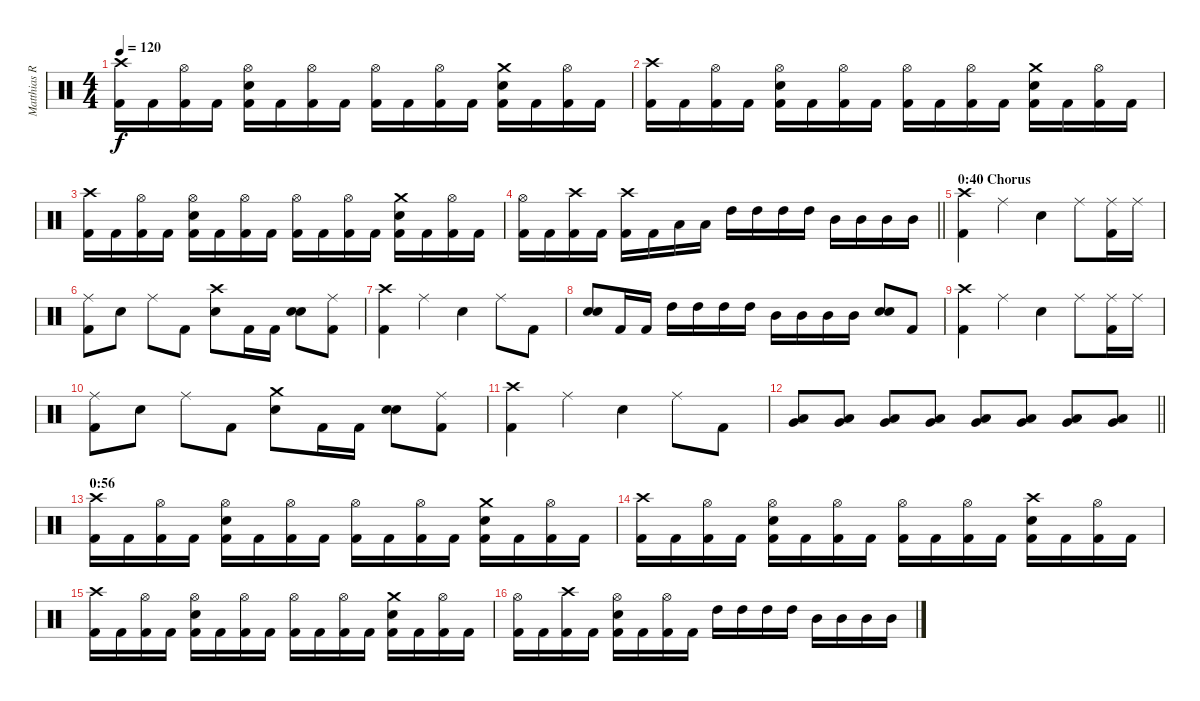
\track ("Matthias R." "Matthias R") {instrument percussion}
\staff {score}
\articulation defaults
\ts (4 4)
\tempo 120
\clef neutral
\ks c
("Kick (hit) 2" "Crash high (hit)").16{dy f} "Kick (hit) 2".16 ("Kick (hit) 2" "Hi-Hat (open)").16 "Kick (hit) 2".16 ("Kick (hit) 2" "Snare (hit) 2" "Hi-Hat (open)").16 "Kick (hit) 2".16 ("Kick (hit) 2" "Hi-Hat (open)").16 "Kick (hit) 2".16 ("Kick (hit) 2" "Hi-Hat (open)").16 "Kick (hit) 2".16 ("Kick (hit) 2" "Hi-Hat (open)").16 "Kick (hit) 2".16 ("Kick (hit) 2" "Snare (hit) 2" "Crash medium (hit)").16 "Kick (hit) 2".16 ("Kick (hit) 2" "Hi-Hat (open)").16 "Kick (hit) 2".16 |
("Kick (hit) 2" "Crash high (hit)").16 "Kick (hit) 2".16 ("Kick (hit) 2" "Hi-Hat (open)").16 "Kick (hit) 2".16 ("Kick (hit) 2" "Snare (hit) 2" "Hi-Hat (open)").16 "Kick (hit) 2".16 ("Kick (hit) 2" "Hi-Hat (open)").16 "Kick (hit) 2".16 ("Kick (hit) 2" "Hi-Hat (open)").16 "Kick (hit) 2".16 ("Kick (hit) 2" "Hi-Hat (open)").16 "Kick (hit) 2".16 ("Kick (hit) 2" "Snare (hit) 2" "Crash medium (hit)").16 "Kick (hit) 2".16 ("Kick (hit) 2" "Hi-Hat (open)").16 "Kick (hit) 2".16 |
("Kick (hit) 2" "Crash high (hit)").16 "Kick (hit) 2".16 ("Kick (hit) 2" "Hi-Hat (open)").16 "Kick (hit) 2".16 ("Kick (hit) 2" "Snare (hit) 2" "Hi-Hat (open)").16 "Kick (hit) 2".16 ("Kick (hit) 2" "Hi-Hat (open)").16 "Kick (hit) 2".16 ("Kick (hit) 2" "Hi-Hat (open)").16 "Kick (hit) 2".16 ("Kick (hit) 2" "Hi-Hat (open)").16 "Kick (hit) 2".16 ("Kick (hit) 2" "Snare (hit) 2" "Crash medium (hit)").16 "Kick (hit) 2".16 ("Kick (hit) 2" "Hi-Hat (open)").16 "Kick (hit) 2".16 |
\barLineRight lightlight
("Kick (hit) 2" "Hi-Hat (open)").16 "Kick (hit) 2".16 ("Kick (hit) 2" "Crash high (hit)").16 "Kick (hit) 2".16 ("Kick (hit) 2" "Crash high (hit)").16 "Kick (hit) 2".16 "Low Tom (hit)".16 "Low Tom (hit)".16 "High Tom (hit)".16 "High Tom (hit)".16 "High Tom (hit)".16 "High Tom (hit)".16 "Mid Tom (hit)".16 "Mid Tom (hit)".16 "Mid Tom (hit)".16 "Mid Tom (hit)".16 |
\section ("" "0:40 Chorus")
("Kick (hit) 2" "Crash high (hit)").4 "Ride (middle)".4 "Snare (hit) 2".4 "Ride (middle)".8 ("Kick (hit) 2" "Ride (middle)").16 "Ride (middle)".16 |
("Kick (hit) 2" "Ride (middle)").8 "Snare (hit) 2".8 "Ride (middle)".8 "Kick (hit) 2".8 ("Snare (hit) 2" "Crash high (hit)").8 "Kick (hit) 2".16 "Kick (hit) 2".16 ("Snare (hit) 2" "Electric Snare (hit)").8{bu 60} ("Kick (hit) 2" "Ride (middle)").8 |
("Kick (hit) 2" "Crash high (hit)").4 "Ride (middle)".4 "Snare (hit) 2".4 "Ride (middle)".8 "Kick (hit) 2".8 |
("Snare (hit) 2" "Electric Snare (hit)").8{bu 240} "Kick (hit) 2".16 "Kick (hit) 2".16 "High Tom (hit)".16 "High Tom (hit)".16 "High Tom (hit)".16 "High Tom (hit)".16 "Mid Tom (hit)".16 "Mid Tom (hit)".16 "Mid Tom (hit)".16 "Mid Tom (hit)".16 ("Snare (hit) 2" "Electric Snare (hit)").8{bu 240} "Kick (hit) 2".8 |
("Kick (hit) 2" "Crash high (hit)").4 "Ride (middle)".4 "Snare (hit) 2".4 "Ride (middle)".8 ("Kick (hit) 2" "Ride (middle)").16 "Ride (middle)".16 |
("Kick (hit) 2" "Ride (middle)").8 "Snare (hit) 2".8 "Ride (middle)".8 "Kick (hit) 2".8 ("Snare (hit) 2" "Crash medium (hit)").8 "Kick (hit) 2".16 "Kick (hit) 2".16 ("Snare (hit) 2" "Electric Snare (hit)").8{bu 60} ("Kick (hit) 2" "Ride (middle)").8 |
("Kick (hit) 2" "Crash high (hit)").4 "Ride (middle)".4 "Snare (hit) 2".4 "Ride (middle)".8 "Kick (hit) 2".8 |
\barLineRight lightlight
("Low Tom (hit)" "Very Low Tom (hit)").8 ("Low Tom (hit)" "Very Low Tom (hit)").8 ("Low Tom (hit)" "Very Low Tom (hit)").8 ("Low Tom (hit)" "Very Low Tom (hit)").8 ("Low Tom (hit)" "Very Low Tom (hit)").8 ("Low Tom (hit)" "Very Low Tom (hit)").8 ("Low Tom (hit)" "Very Low Tom (hit)").8 ("Low Tom (hit)" "Very Low Tom (hit)").8 |
\section ("" "0:56")
("Kick (hit) 2" "Crash high (hit)").16 "Kick (hit) 2".16 ("Kick (hit) 2" "Hi-Hat (open)").16 "Kick (hit) 2".16 ("Kick (hit) 2" "Snare (hit) 2" "Hi-Hat (open)").16 "Kick (hit) 2".16 ("Kick (hit) 2" "Hi-Hat (open)").16 "Kick (hit) 2".16 ("Kick (hit) 2" "Hi-Hat (open)").16 "Kick (hit) 2".16 ("Kick (hit) 2" "Hi-Hat (open)").16 "Kick (hit) 2".16 ("Kick (hit) 2" "Snare (hit) 2" "Crash medium (hit)").16 "Kick (hit) 2".16 ("Kick (hit) 2" "Hi-Hat (open)").16 "Kick (hit) 2".16 |
("Kick (hit) 2" "Crash high (hit)").16 "Kick (hit) 2".16 ("Kick (hit) 2" "Hi-Hat (open)").16 "Kick (hit) 2".16 ("Kick (hit) 2" "Snare (hit) 2" "Hi-Hat (open)").16 "Kick (hit) 2".16 ("Kick (hit) 2" "Hi-Hat (open)").16 "Kick (hit) 2".16 ("Kick (hit) 2" "Hi-Hat (open)").16 "Kick (hit) 2".16 ("Kick (hit) 2" "Hi-Hat (open)").16 "Kick (hit) 2".16 ("Kick (hit) 2" "Snare (hit) 2" "Crash high (hit)").16 "Kick (hit) 2".16 ("Kick (hit) 2" "Hi-Hat (open)").16 "Kick (hit) 2".16 |
("Kick (hit) 2" "Crash high (hit)").16 "Kick (hit) 2".16 ("Kick (hit) 2" "Hi-Hat (open)").16 "Kick (hit) 2".16 ("Kick (hit) 2" "Snare (hit) 2" "Hi-Hat (open)").16 "Kick (hit) 2".16 ("Kick (hit) 2" "Hi-Hat (open)").16 "Kick (hit) 2".16 ("Kick (hit) 2" "Hi-Hat (open)").16 "Kick (hit) 2".16 ("Kick (hit) 2" "Hi-Hat (open)").16 "Kick (hit) 2".16 ("Kick (hit) 2" "Snare (hit) 2" "Crash medium (hit)").16 "Kick (hit) 2".16 ("Kick (hit) 2" "Hi-Hat (open)").16 "Kick (hit) 2".16 |
("Kick (hit) 2" "Hi-Hat (open)").16 "Kick (hit) 2".16 ("Kick (hit) 2" "Crash high (hit)").16 "Kick (hit) 2".16 ("Kick (hit) 2" "Snare (hit) 2" "Hi-Hat (open)").16 "Kick (hit) 2".16 ("Kick (hit) 2" "Hi-Hat (open)").16 "Kick (hit) 2".16 "High Tom (hit)".16 "High Tom (hit)".16 "High Tom (hit)".16 "High Tom (hit)".16 "Mid Tom (hit)".16 "Mid Tom (hit)".16 "Mid Tom (hit)".16 "Mid Tom (hit)".16
